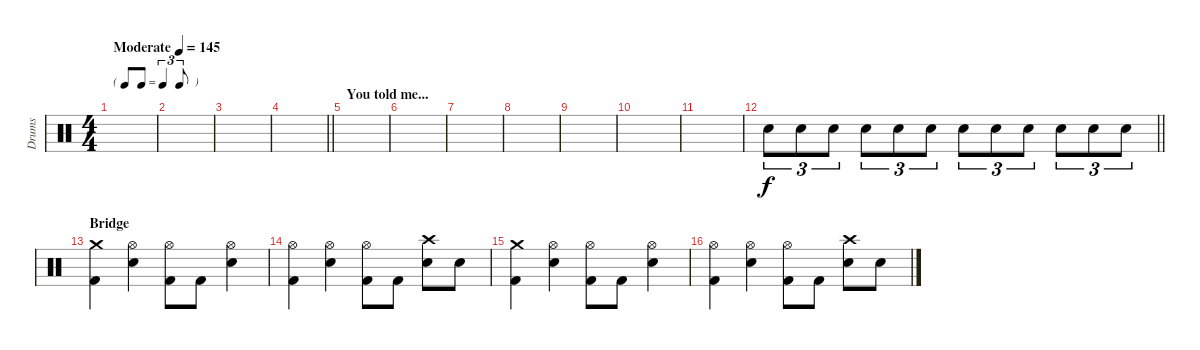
\track ("Drums" "Drums") {instrument percussion}
\staff {score}
\articulation defaults
\ts (4 4)
\tf triplet8th
\tempo (145 "Moderate")
\clef neutral
\ks c
|
|
|
\barLineRight lightlight
|
\section ("" "You told me...")
|
|
|
|
|
|
|
\barLineRight lightlight "Electric Snare (hit)".8{tu (3 2)} "Electric Snare (hit)".8{tu (3 2)} "Electric Snare (hit)".8{tu (3 2)} "Electric Snare (hit)".8{tu (3 2)} "Electric Snare (hit)".8{tu (3 2)} "Electric Snare (hit)".8{tu (3 2)} "Electric Snare (hit)".8{tu (3 2)} "Electric Snare (hit)".8{tu (3 2)} "Electric Snare (hit)".8{tu (3 2)} "Electric Snare (hit)".8{tu (3 2)} "Electric Snare (hit)".8{tu (3 2)} "Electric Snare (hit)".8{tu (3 2)}
|
\section ("" "Bridge")
("Crash medium (hit)" "Kick (hit) 2").4 ("Hi-Hat (open)" "Electric Snare (hit)").4 ("Hi-Hat (open)" "Kick (hit) 2").8 "Kick (hit) 2".8 ("Hi-Hat (open)" "Electric Snare (hit)").4 |
("Hi-Hat (open)" "Kick (hit) 2").4 ("Hi-Hat (open)" "Electric Snare (hit)").4 ("Hi-Hat (open)" "Kick (hit) 2").8 "Kick (hit) 2".8 ("Crash high (hit)" "Electric Snare (hit)").8 "Electric Snare (hit)".8 |
("Crash medium (hit)" "Kick (hit) 2").4 ("Hi-Hat (open)" "Electric Snare (hit)").4 ("Hi-Hat (open)" "Kick (hit) 2").8 "Kick (hit) 2".8 ("Hi-Hat (open)" "Electric Snare (hit)").4 |
("Hi-Hat (open)" "Kick (hit) 2").4 ("Hi-Hat (open)" "Electric Snare (hit)").4 ("Hi-Hat (open)" "Kick (hit) 2").8 "Kick (hit) 2".8 ("Crash high (hit)" "Electric Snare (hit)").8 "Electric Snare (hit)".8
